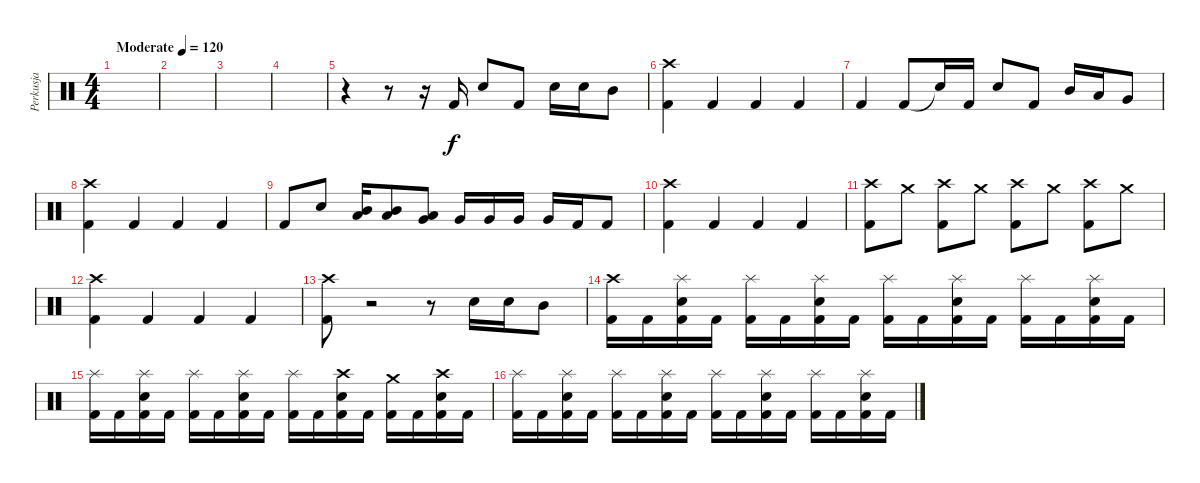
\track ("Perkusja" "Perkusja") {instrument percussion}
\staff {score}
\articulation defaults
\ts (4 4)
\tempo (120 "Moderate")
\clef neutral
\ks c
|
|
|
|
r.4 r.8 r.16 "Kick (hit) 2".16 "Snare (hit) 2".8 "Kick (hit) 2".8 "Snare (hit) 2".16 "Snare (hit) 2".16 "Mid Tom (hit)".8 |
("Crash high (hit)" "Kick (hit) 2").4 "Kick (hit) 2".4 "Kick (hit) 2".4 "Kick (hit) 2".4 |
"Kick (hit) 2".4 "Kick (hit) 2".8 "Snare (hit)"{t}.16 "Kick (hit) 2".16 "Snare (hit) 2".8 "Kick (hit) 2".8 "Mid Tom (hit)".16 "Low Tom (hit)".16 "Very Low Tom (hit)".8 |
("Crash high (hit)" "Kick (hit) 2").4 "Kick (hit) 2".4 "Kick (hit) 2".4 "Kick (hit) 2".4 |
"Kick (hit) 2".8 "Snare (hit) 2".8 ("Mid Tom (hit)" "Low Tom (hit)").16 ("Mid Tom (hit)" "Low Tom (hit)").8 ("Low Tom (hit)" "Very Low Tom (hit)").8 "Very Low Tom (hit)".16 "Very Low Tom (hit)".16 "Very Low Tom (hit)".16 "Very Low Tom (hit)".16 "Kick (hit) 2".16 "Kick (hit) 2".8 |
("Crash high (hit)" "Kick (hit) 2").4 "Kick (hit) 2".4 "Kick (hit) 2".4 "Kick (hit) 2".4 |
("Crash high (hit)" "Kick (hit) 2").8 "Crash medium (hit)".8 ("Crash high (hit)" "Kick (hit) 2").8 "Crash medium (hit)".8 ("Crash high (hit)" "Kick (hit) 2").8 "Crash medium (hit)".8 ("Crash high (hit)" "Kick (hit) 2").8 "Crash medium (hit)".8 |
("Crash high (hit)" "Kick (hit) 2").4 "Kick (hit) 2".4 "Kick (hit) 2".4 "Kick (hit) 2".4 |
("Crash high (hit)" "Kick (hit) 2").8 r.2 r.8 "Snare (hit) 2".16 "Snare (hit) 2".16 "Mid Tom (hit)".8 |
("Crash high (hit)" "Kick (hit) 2").16 "Kick (hit) 2".16 ("Splash (hit)" "Snare (hit) 2" "Kick (hit) 2").16 "Kick (hit) 2".16 ("Splash (hit)" "Kick (hit) 2").16 "Kick (hit) 2".16 ("Splash (hit)" "Snare (hit) 2" "Kick (hit) 2").16 "Kick (hit) 2".16 ("Splash (hit)" "Kick (hit) 2").16 "Kick (hit) 2".16 ("Splash (hit)" "Snare (hit) 2" "Kick (hit) 2").16 "Kick (hit) 2".16 ("Splash (hit)" "Kick (hit) 2").16 "Kick (hit) 2".16 ("Splash (hit)" "Snare (hit) 2" "Kick (hit) 2").16 "Kick (hit) 2".16 |
("Splash (hit)" "Kick (hit) 2").16 "Kick (hit) 2".16 ("Splash (hit)" "Snare (hit) 2" "Kick (hit) 2").16 "Kick (hit) 2".16 ("Splash (hit)" "Kick (hit) 2").16 "Kick (hit) 2".16 ("Splash (hit)" "Snare (hit) 2" "Kick (hit) 2").16 "Kick (hit) 2".16 ("Splash (hit)" "Kick (hit) 2").16 "Kick (hit) 2".16 ("Crash high (hit)" "Snare (hit) 2" "Kick (hit) 2").16 "Kick (hit) 2".16 ("Crash medium (hit)" "Kick (hit) 2").16 "Kick (hit) 2".16 ("Crash high (hit)" "Snare (hit) 2" "Kick (hit) 2").16 "Kick (hit) 2".16 |
("Splash (hit)" "Kick (hit) 2").16 "Kick (hit) 2".16 ("Splash (hit)" "Snare (hit) 2" "Kick (hit) 2").16 "Kick (hit) 2".16 ("Splash (hit)" "Kick (hit) 2").16 "Kick (hit) 2".16 ("Splash (hit)" "Snare (hit) 2" "Kick (hit) 2").16 "Kick (hit) 2".16 ("Splash (hit)" "Kick (hit) 2").16 "Kick (hit) 2".16 ("Splash (hit)" "Snare (hit) 2" "Kick (hit) 2").16 "Kick (hit) 2".16 ("Splash (hit)" "Kick (hit) 2").16 "Kick (hit) 2".16 ("Splash (hit)" "Snare (hit) 2" "Kick (hit) 2").16 "Kick (hit) 2".16
